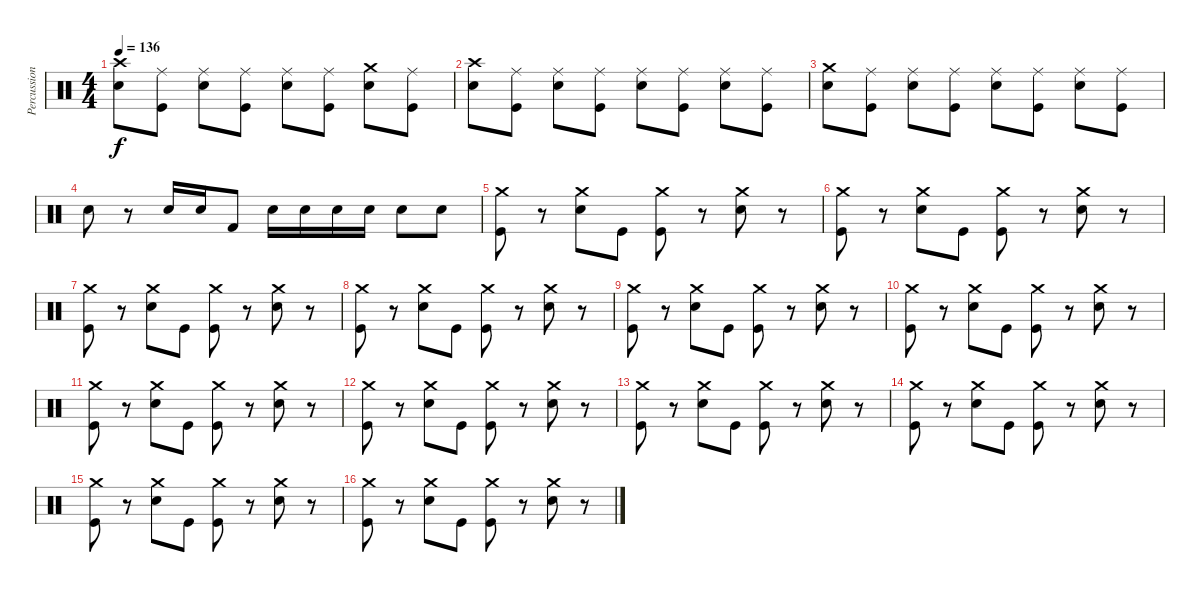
\track ("Percussion" "Percussion") {instrument percussion}
\staff {score}
\articulation defaults
\ts (4 4)
\tempo 136
\clef neutral
\ks c
("Crash high (hit)" "Electric Snare (hit)").8{dy f} ("Ride (middle)" "Kick (hit)").8 ("Ride (middle)" "Electric Snare (hit)").8 ("Ride (middle)" "Kick (hit)").8 ("Ride (middle)" "Electric Snare (hit)").8 ("Ride (middle)" "Kick (hit)").8 ("Crash medium (hit)" "Electric Snare (hit)").8 ("Ride (middle)" "Kick (hit)").8 |
("Crash high (hit)" "Electric Snare (hit)").8 ("Ride (middle)" "Kick (hit)").8 ("Ride (middle)" "Electric Snare (hit)").8 ("Ride (middle)" "Kick (hit)").8 ("Ride (middle)" "Electric Snare (hit)").8 ("Ride (middle)" "Kick (hit)").8 ("Ride (middle)" "Electric Snare (hit)").8 ("Ride (middle)" "Kick (hit)").8 |
("Crash medium (hit)" "Electric Snare (hit)").8 ("Ride (middle)" "Kick (hit)").8 ("Ride (middle)" "Electric Snare (hit)").8 ("Ride (middle)" "Kick (hit)").8 ("Ride (middle)" "Electric Snare (hit)").8 ("Ride (middle)" "Kick (hit)").8 ("Ride (middle)" "Electric Snare (hit)").8 ("Ride (middle)" "Kick (hit)").8 |
"Electric Snare (hit)".8 r.8 "Electric Snare (hit)".16 "Electric Snare (hit)".16 "Kick (hit) 2".8 "Electric Snare (hit)".16 "Electric Snare (hit)".16 "Electric Snare (hit)".16 "Electric Snare (hit)".16 "Electric Snare (hit)".8 "Electric Snare (hit)".8 |
("Crash medium (hit)" "Kick (hit)").8 r.8 ("Crash medium (hit)" "Electric Snare (hit)").8 "Kick (hit)".8 ("Crash medium (hit)" "Kick (hit)").8 r.8 ("Crash medium (hit)" "Electric Snare (hit)").8 r.8 |
("Crash medium (hit)" "Kick (hit)").8 r.8 ("Crash medium (hit)" "Electric Snare (hit)").8 "Kick (hit)".8 ("Crash medium (hit)" "Kick (hit)").8 r.8 ("Crash medium (hit)" "Electric Snare (hit)").8 r.8 |
("Crash medium (hit)" "Kick (hit)").8 r.8 ("Crash medium (hit)" "Electric Snare (hit)").8 "Kick (hit)".8 ("Crash medium (hit)" "Kick (hit)").8 r.8 ("Crash medium (hit)" "Electric Snare (hit)").8 r.8 |
("Crash medium (hit)" "Kick (hit)").8 r.8 ("Crash medium (hit)" "Electric Snare (hit)").8 "Kick (hit)".8 ("Crash medium (hit)" "Kick (hit)").8 r.8 ("Crash medium (hit)" "Electric Snare (hit)").8 r.8 |
("Crash medium (hit)" "Kick (hit)").8 r.8 ("Crash medium (hit)" "Electric Snare (hit)").8 "Kick (hit)".8 ("Crash medium (hit)" "Kick (hit)").8 r.8 ("Crash medium (hit)" "Electric Snare (hit)").8 r.8 |
("Crash medium (hit)" "Kick (hit)").8 r.8 ("Crash medium (hit)" "Electric Snare (hit)").8 "Kick (hit)".8 ("Crash medium (hit)" "Kick (hit)").8 r.8 ("Crash medium (hit)" "Electric Snare (hit)").8 r.8 |
("Crash medium (hit)" "Kick (hit)").8 r.8 ("Crash medium (hit)" "Electric Snare (hit)").8 "Kick (hit)".8 ("Crash medium (hit)" "Kick (hit)").8 r.8 ("Crash medium (hit)" "Electric Snare (hit)").8 r.8 |
("Crash medium (hit)" "Kick (hit)").8 r.8 ("Crash medium (hit)" "Electric Snare (hit)").8 "Kick (hit)".8 ("Crash medium (hit)" "Kick (hit)").8 r.8 ("Crash medium (hit)" "Electric Snare (hit)").8 r.8 |
("Crash medium (hit)" "Kick (hit)").8 r.8 ("Crash medium (hit)" "Electric Snare (hit)").8 "Kick (hit)".8 ("Crash medium (hit)" "Kick (hit)").8 r.8 ("Crash medium (hit)" "Electric Snare (hit)").8 r.8 |
("Crash medium (hit)" "Kick (hit)").8 r.8 ("Crash medium (hit)" "Electric Snare (hit)").8 "Kick (hit)".8 ("Crash medium (hit)" "Kick (hit)").8 r.8 ("Crash medium (hit)" "Electric Snare (hit)").8 r.8 |
("Crash medium (hit)" "Kick (hit)").8 r.8 ("Crash medium (hit)" "Electric Snare (hit)").8 "Kick (hit)".8 ("Crash medium (hit)" "Kick (hit)").8 r.8 ("Crash medium (hit)" "Electric Snare (hit)").8 r.8 |
("Crash medium (hit)" "Kick (hit)").8 r.8 ("Crash medium (hit)" "Electric Snare (hit)").8 "Kick (hit)".8 ("Crash medium (hit)" "Kick (hit)").8 r.8 ("Crash medium (hit)" "Electric Snare (hit)").8 r.8
